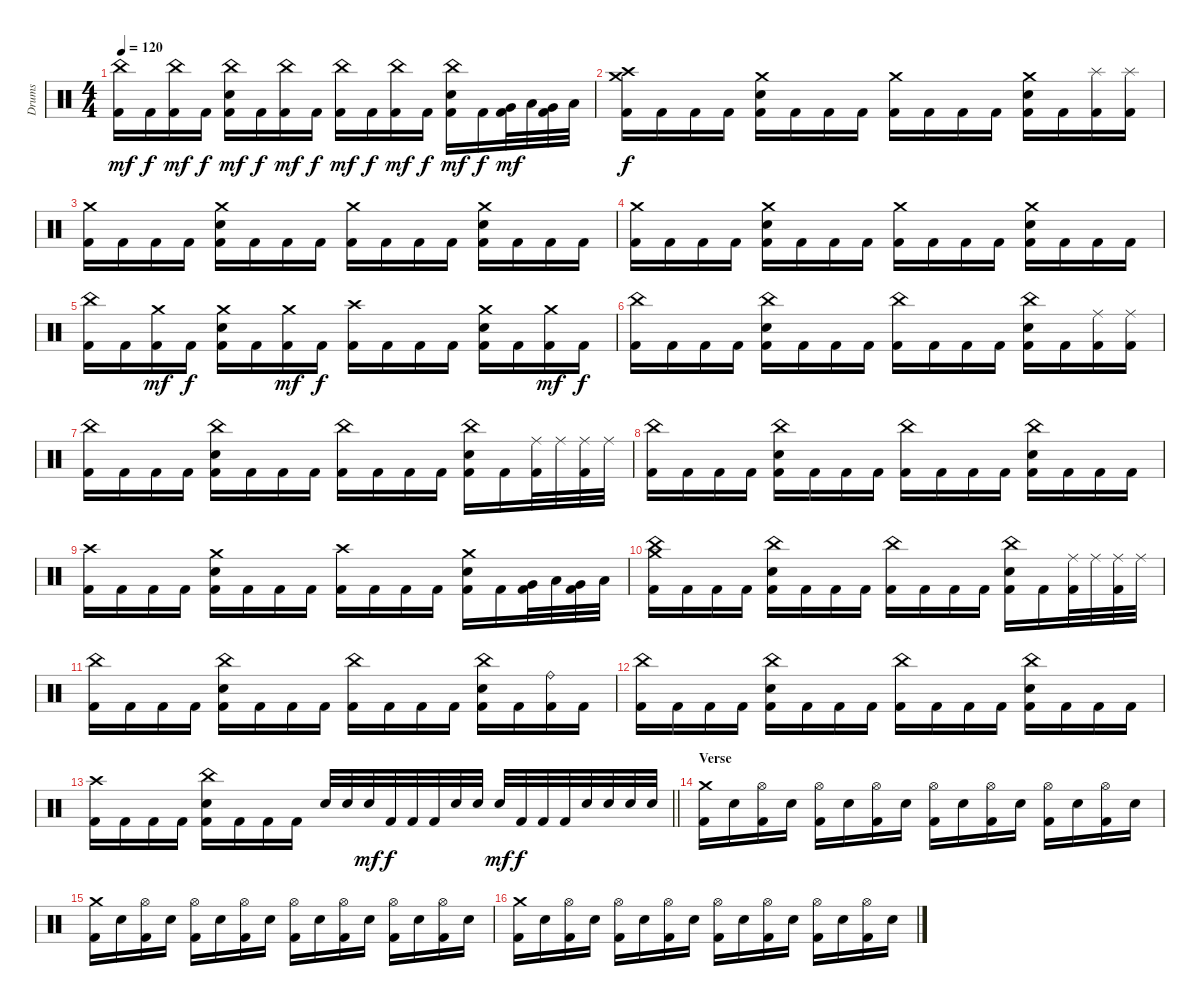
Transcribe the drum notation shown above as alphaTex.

\track ("Drums" "Drums") {instrument percussion}
\staff {score}
\articulation defaults
\ts (4 4)
\tempo 120
\clef neutral
\ks c
("China (hit)" "Kick (hit) 2").16{dy mf} "Kick (hit) 2".16{dy f} ("China (hit)" "Kick (hit) 2").16{dy mf} "Kick (hit) 2".16{dy f} ("China (hit)" "Electric Snare (hit)" "Kick (hit) 2").16{dy mf} "Kick (hit) 2".16{dy f} ("China (hit)" "Kick (hit) 2").16{dy mf} "Kick (hit) 2".16{dy f} ("China (hit)" "Kick (hit) 2").16{dy mf} "Kick (hit) 2".16{dy f} ("China (hit)" "Kick (hit) 2").16{dy mf} "Kick (hit) 2".16{dy f} ("China (hit)" "Electric Snare (hit)" "Kick (hit) 2").16{dy mf} "Kick (hit) 2".16{dy f} ("Very Low Tom (hit)" "Kick (hit) 2").32{dy mf} "Low Floor Tom (hit)".32 ("Very Low Tom (hit)" "Kick (hit) 2").32 "Low Floor Tom (hit)".32 |
("Crash medium (hit)" "Crash high (hit)" "Kick (hit) 2").16{dy f} "Kick (hit) 2".16 "Kick (hit) 2".16 "Kick (hit) 2".16 ("Crash medium (hit)" "Electric Snare (hit)" "Kick (hit) 2").16 "Kick (hit) 2".16 "Kick (hit) 2".16 "Kick (hit) 2".16 ("Crash medium (hit)" "Kick (hit) 2").16 "Kick (hit) 2".16 "Kick (hit) 2".16 "Kick (hit) 2".16 ("Crash medium (hit)" "Electric Snare (hit)" "Kick (hit) 2").16 "Kick (hit) 2".16 ("Splash (hit)" "Kick (hit) 2").16 ("Splash (hit)" "Kick (hit) 2").16 |
("Crash medium (hit)" "Kick (hit) 2").16 "Kick (hit) 2".16 "Kick (hit) 2".16 "Kick (hit) 2".16 ("Crash medium (hit)" "Electric Snare (hit)" "Kick (hit) 2").16 "Kick (hit) 2".16 "Kick (hit) 2".16 "Kick (hit) 2".16 ("Crash medium (hit)" "Kick (hit) 2").16 "Kick (hit) 2".16 "Kick (hit) 2".16 "Kick (hit) 2".16 ("Crash medium (hit)" "Electric Snare (hit)" "Kick (hit) 2").16 "Kick (hit) 2".16 "Kick (hit) 2".16 "Kick (hit) 2".16 |
("Crash medium (hit)" "Kick (hit) 2").16 "Kick (hit) 2".16 "Kick (hit) 2".16 "Kick (hit) 2".16 ("Crash medium (hit)" "Electric Snare (hit)" "Kick (hit) 2").16 "Kick (hit) 2".16 "Kick (hit) 2".16 "Kick (hit) 2".16 ("Crash medium (hit)" "Kick (hit) 2").16 "Kick (hit) 2".16 "Kick (hit) 2".16 "Kick (hit) 2".16 ("Crash medium (hit)" "Electric Snare (hit)" "Kick (hit) 2").16 "Kick (hit) 2".16 "Kick (hit) 2".16 "Kick (hit) 2".16 |
("China (hit)" "Kick (hit) 2").16 "Kick (hit) 2".16 ("Crash medium (hit)" "Kick (hit) 2").16{dy mf} "Kick (hit) 2".16{dy f} ("Crash medium (hit)" "Electric Snare (hit)" "Kick (hit) 2").16 "Kick (hit) 2".16 ("Crash medium (hit)" "Kick (hit) 2").16{dy mf} "Kick (hit) 2".16{dy f} ("Crash high (hit)" "Kick (hit) 2").16 "Kick (hit) 2".16 "Kick (hit) 2".16 "Kick (hit) 2".16 ("Crash medium (hit)" "Electric Snare (hit)" "Kick (hit) 2").16 "Kick (hit) 2".16 ("Crash medium (hit)" "Kick (hit) 2").16{dy mf} "Kick (hit) 2".16{dy f} |
("China (hit)" "Kick (hit) 2").16 "Kick (hit) 2".16 "Kick (hit) 2".16 "Kick (hit) 2".16 ("China (hit)" "Electric Snare (hit)" "Kick (hit) 2").16 "Kick (hit) 2".16 "Kick (hit) 2".16 "Kick (hit) 2".16 ("China (hit)" "Kick (hit) 2").16 "Kick (hit) 2".16 "Kick (hit) 2".16 "Kick (hit) 2".16 ("China (hit)" "Electric Snare (hit)" "Kick (hit) 2").16 "Kick (hit) 2".16 ("Ride (middle)" "Kick (hit) 2").16 ("Ride (middle)" "Kick (hit) 2").16 |
("China (hit)" "Kick (hit) 2").16 "Kick (hit) 2".16 "Kick (hit) 2".16 "Kick (hit) 2".16 ("China (hit)" "Electric Snare (hit)" "Kick (hit) 2").16 "Kick (hit) 2".16 "Kick (hit) 2".16 "Kick (hit) 2".16 ("China (hit)" "Kick (hit) 2").16 "Kick (hit) 2".16 "Kick (hit) 2".16 "Kick (hit) 2".16 ("China (hit)" "Electric Snare (hit)" "Kick (hit) 2").16 "Kick (hit) 2".16 ("Ride (middle)" "Kick (hit) 2").32 "Ride (middle)".32 ("Ride (middle)" "Kick (hit) 2").32 "Ride (middle)".32 |
("China (hit)" "Kick (hit) 2").16 "Kick (hit) 2".16 "Kick (hit) 2".16 "Kick (hit) 2".16 ("China (hit)" "Electric Snare (hit)" "Kick (hit) 2").16 "Kick (hit) 2".16 "Kick (hit) 2".16 "Kick (hit) 2".16 ("China (hit)" "Kick (hit) 2").16 "Kick (hit) 2".16 "Kick (hit) 2".16 "Kick (hit) 2".16 ("China (hit)" "Electric Snare (hit)" "Kick (hit) 2").16 "Kick (hit) 2".16 "Kick (hit) 2".16 "Kick (hit) 2".16 |
("Crash high (hit)" "Kick (hit) 2").16 "Kick (hit) 2".16 "Kick (hit) 2".16 "Kick (hit) 2".16 ("Crash medium (hit)" "Electric Snare (hit)" "Kick (hit) 2").16 "Kick (hit) 2".16 "Kick (hit) 2".16 "Kick (hit) 2".16 ("Crash high (hit)" "Kick (hit) 2").16 "Kick (hit) 2".16 "Kick (hit) 2".16 "Kick (hit) 2".16 ("Crash medium (hit)" "Electric Snare (hit)" "Kick (hit) 2").16 "Kick (hit) 2".16 ("Very Low Tom (hit)" "Kick (hit) 2").32 "Low Floor Tom (hit)".32 ("Very Low Tom (hit)" "Kick (hit) 2").32 "Low Floor Tom (hit)".32 |
("Crash medium (hit)" "China (hit)" "Kick (hit) 2").16 "Kick (hit) 2".16 "Kick (hit) 2".16 "Kick (hit) 2".16 ("China (hit)" "Electric Snare (hit)" "Kick (hit) 2").16 "Kick (hit) 2".16 "Kick (hit) 2".16 "Kick (hit) 2".16 ("China (hit)" "Kick (hit) 2").16 "Kick (hit) 2".16 "Kick (hit) 2".16 "Kick (hit) 2".16 ("China (hit)" "Electric Snare (hit)" "Kick (hit) 2").16 "Kick (hit) 2".16 ("Ride (middle)" "Kick (hit) 2").32 "Ride (middle)".32 ("Ride (middle)" "Kick (hit) 2").32 "Ride (middle)".32 |
("China (hit)" "Kick (hit) 2").16 "Kick (hit) 2".16 "Kick (hit) 2".16 "Kick (hit) 2".16 ("China (hit)" "Electric Snare (hit)" "Kick (hit) 2").16 "Kick (hit) 2".16 "Kick (hit) 2".16 "Kick (hit) 2".16 ("China (hit)" "Kick (hit) 2").16 "Kick (hit) 2".16 "Kick (hit) 2".16 "Kick (hit) 2".16 ("China (hit)" "Electric Snare (hit)" "Kick (hit) 2").16 "Kick (hit) 2".16 ("Ride (bell)" "Kick (hit) 2").16 "Kick (hit) 2".16 |
("China (hit)" "Kick (hit) 2").16 "Kick (hit) 2".16 "Kick (hit) 2".16 "Kick (hit) 2".16 ("China (hit)" "Electric Snare (hit)" "Kick (hit) 2").16 "Kick (hit) 2".16 "Kick (hit) 2".16 "Kick (hit) 2".16 ("China (hit)" "Kick (hit) 2").16 "Kick (hit) 2".16 "Kick (hit) 2".16 "Kick (hit) 2".16 ("China (hit)" "Electric Snare (hit)" "Kick (hit) 2").16 "Kick (hit) 2".16 "Kick (hit) 2".16 "Kick (hit) 2".16 |
\barLineRight lightlight
("Crash high (hit)" "Kick (hit) 2").16 "Kick (hit) 2".16 "Kick (hit) 2".16 "Kick (hit) 2".16 ("China (hit)" "Electric Snare (hit)" "Kick (hit) 2").16 "Kick (hit) 2".16 "Kick (hit) 2".16 "Kick (hit) 2".16 "Electric Snare (hit)".32 "Electric Snare (hit)".32 "Electric Snare (hit)".32{dy mf} "Kick (hit) 2".32{dy f} "Kick (hit) 2".32 "Kick (hit) 2".32 "Electric Snare (hit)".32 "Electric Snare (hit)".32 "Electric Snare (hit)".32{dy mf} "Kick (hit) 2".32{dy f} "Kick (hit) 2".32 "Kick (hit) 2".32 "Electric Snare (hit)".32 "Electric Snare (hit)".32 "Electric Snare (hit)".32 "Electric Snare (hit)".32 |
\section ("" "Verse")
("Crash medium (hit)" "Kick (hit) 2").16 "Electric Snare (hit)".16 ("Hi-Hat (open)" "Kick (hit) 2").16 "Electric Snare (hit)".16 ("Hi-Hat (open)" "Kick (hit) 2").16 "Electric Snare (hit)".16 ("Hi-Hat (open)" "Kick (hit) 2").16 "Electric Snare (hit)".16 ("Hi-Hat (open)" "Kick (hit) 2").16 "Electric Snare (hit)".16 ("Hi-Hat (open)" "Kick (hit) 2").16 "Electric Snare (hit)".16 ("Hi-Hat (open)" "Kick (hit) 2").16 "Electric Snare (hit)".16 ("Hi-Hat (open)" "Kick (hit) 2").16 "Electric Snare (hit)".16 |
("Crash medium (hit)" "Kick (hit) 2").16 "Electric Snare (hit)".16 ("Hi-Hat (open)" "Kick (hit) 2").16 "Electric Snare (hit)".16 ("Hi-Hat (open)" "Kick (hit) 2").16 "Electric Snare (hit)".16 ("Hi-Hat (open)" "Kick (hit) 2").16 "Electric Snare (hit)".16 ("Hi-Hat (open)" "Kick (hit) 2").16 "Electric Snare (hit)".16 ("Hi-Hat (open)" "Kick (hit) 2").16 "Electric Snare (hit)".16 ("Hi-Hat (open)" "Kick (hit) 2").16 "Electric Snare (hit)".16 ("Hi-Hat (open)" "Kick (hit) 2").16 "Electric Snare (hit)".16 |
("Crash medium (hit)" "Kick (hit) 2").16 "Electric Snare (hit)".16 ("Hi-Hat (open)" "Kick (hit) 2").16 "Electric Snare (hit)".16 ("Hi-Hat (open)" "Kick (hit) 2").16 "Electric Snare (hit)".16 ("Hi-Hat (open)" "Kick (hit) 2").16 "Electric Snare (hit)".16 ("Hi-Hat (open)" "Kick (hit) 2").16 "Electric Snare (hit)".16 ("Hi-Hat (open)" "Kick (hit) 2").16 "Electric Snare (hit)".16 ("Hi-Hat (open)" "Kick (hit) 2").16 "Electric Snare (hit)".16 ("Hi-Hat (open)" "Kick (hit) 2").16 "Electric Snare (hit)".16
